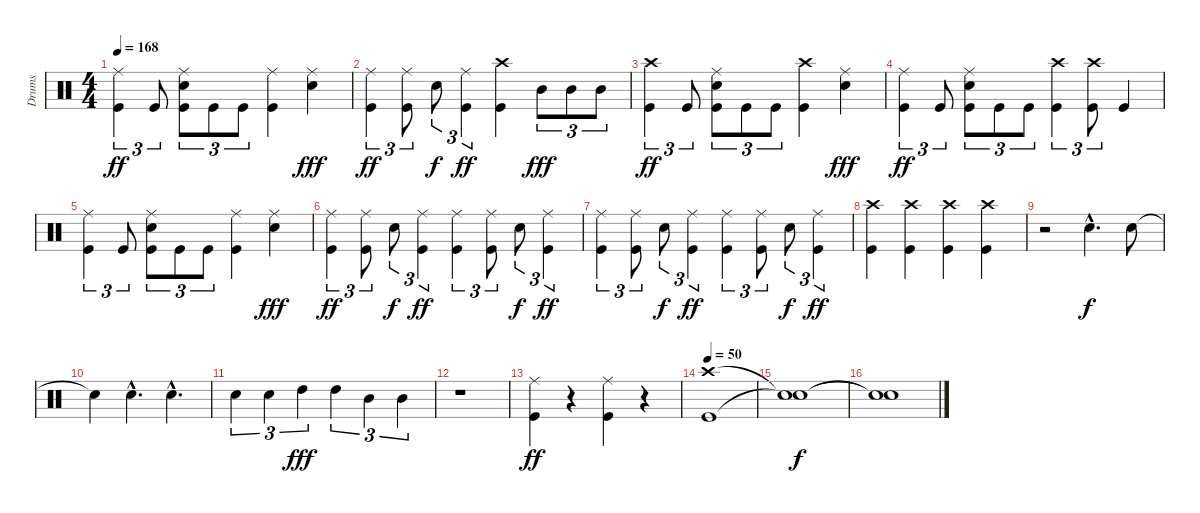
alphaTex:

\track ("Drums" "Drums") {instrument percussion}
\staff {score}
\articulation defaults
\ts (4 4)
\tempo 168
\clef neutral
\ks c
("Ride (middle)" "Kick (hit)").4{tu (3 2) dy ff} "Kick (hit)".8{tu (3 2)} ("Ride (middle)" "Electric Snare (hit)" "Kick (hit)").8{tu (3 2)} "Kick (hit)".8{tu (3 2)} "Kick (hit)".8{tu (3 2)} ("Ride (middle)" "Kick (hit)").4 ("Ride (middle)" "Electric Snare (hit)").4{dy fff} |
("Ride (middle)" "Kick (hit)").4{tu (3 2) dy ff} ("Ride (middle)" "Kick (hit)").8{tu (3 2)} "Electric Snare (hit)".8{tu (3 2) dy f} ("Ride (middle)" "Kick (hit)").4{tu (3 2) dy ff} ("Crash high (hit)" "Kick (hit)").4 "Mid Tom (hit)".8{tu (3 2) dy fff} "Mid Tom (hit)".8{tu (3 2)} "Mid Tom (hit)".8{tu (3 2)} |
("Crash high (hit)" "Kick (hit)").4{tu (3 2) dy ff} "Kick (hit)".8{tu (3 2)} ("Ride (middle)" "Electric Snare (hit)" "Kick (hit)").8{tu (3 2)} "Kick (hit)".8{tu (3 2)} "Kick (hit)".8{tu (3 2)} ("Crash high (hit)" "Kick (hit)").4 ("Ride (middle)" "Electric Snare (hit)").4{dy fff} |
("Ride (middle)" "Kick (hit)").4{tu (3 2) dy ff} "Kick (hit)".8{tu (3 2)} ("Ride (middle)" "Electric Snare (hit)" "Kick (hit)").8{tu (3 2)} "Kick (hit)".8{tu (3 2)} "Kick (hit)".8{tu (3 2)} ("Crash high (hit)" "Kick (hit)").4{tu (3 2)} ("Crash high (hit)" "Kick (hit)").8{tu (3 2)} "Kick (hit)".4 |
("Ride (middle)" "Kick (hit)").4{tu (3 2)} "Kick (hit)".8{tu (3 2)} ("Ride (middle)" "Electric Snare (hit)" "Kick (hit)").8{tu (3 2)} "Kick (hit)".8{tu (3 2)} "Kick (hit)".8{tu (3 2)} ("Ride (middle)" "Kick (hit)").4 ("Ride (middle)" "Electric Snare (hit)").4{dy fff} |
("Ride (middle)" "Kick (hit)").4{tu (3 2) dy ff} ("Ride (middle)" "Kick (hit)").8{tu (3 2)} "Electric Snare (hit)".8{tu (3 2) dy f} ("Ride (middle)" "Kick (hit)").4{tu (3 2) dy ff} ("Ride (middle)" "Kick (hit)").4{tu (3 2)} ("Ride (middle)" "Kick (hit)").8{tu (3 2)} "Electric Snare (hit)".8{tu (3 2) dy f} ("Ride (middle)" "Kick (hit)").4{tu (3 2) dy ff} |
("Ride (middle)" "Kick (hit)").4{tu (3 2)} ("Ride (middle)" "Kick (hit)").8{tu (3 2)} "Electric Snare (hit)".8{tu (3 2) dy f} ("Ride (middle)" "Kick (hit)").4{tu (3 2) dy ff} ("Ride (middle)" "Kick (hit)").4{tu (3 2)} ("Ride (middle)" "Kick (hit)").8{tu (3 2)} "Electric Snare (hit)".8{tu (3 2) dy f} ("Ride (middle)" "Kick (hit)").4{tu (3 2) dy ff} |
("Crash high (hit)" "Kick (hit)").4 ("Crash high (hit)" "Kick (hit)").4 ("Crash high (hit)" "Kick (hit)").4 ("Crash high (hit)" "Kick (hit)").4 |
r.2 "Electric Snare (hit)"{hac}.4{d dy f} "Electric Snare (hit)".8 |
"Electric Snare (hit)"{t}.4 "Electric Snare (hit)"{hac}.4{d} "Electric Snare (hit)"{hac}.4{d} |
"Electric Snare (hit)".4{tu (3 2)} "Electric Snare (hit)".4{tu (3 2)} "High Tom (hit)".4{tu (3 2) dy fff} "High Tom (hit)".4{tu (3 2)} "Mid Tom (hit)".4{tu (3 2)} "Mid Tom (hit)".4{tu (3 2)} |
r.1 |
("Ride (middle)" "Kick (hit)").4{dy ff} r.4 ("Ride (middle)" "Kick (hit)").4 r.4 |
\tempo 50
("Crash high (hit)" "Kick (hit)").1 |
("Snare (hit)"{t} "Snare (hit)"{t}).1{dy f} |
("Snare (hit)"{t} "Snare (hit)"{t}).1
